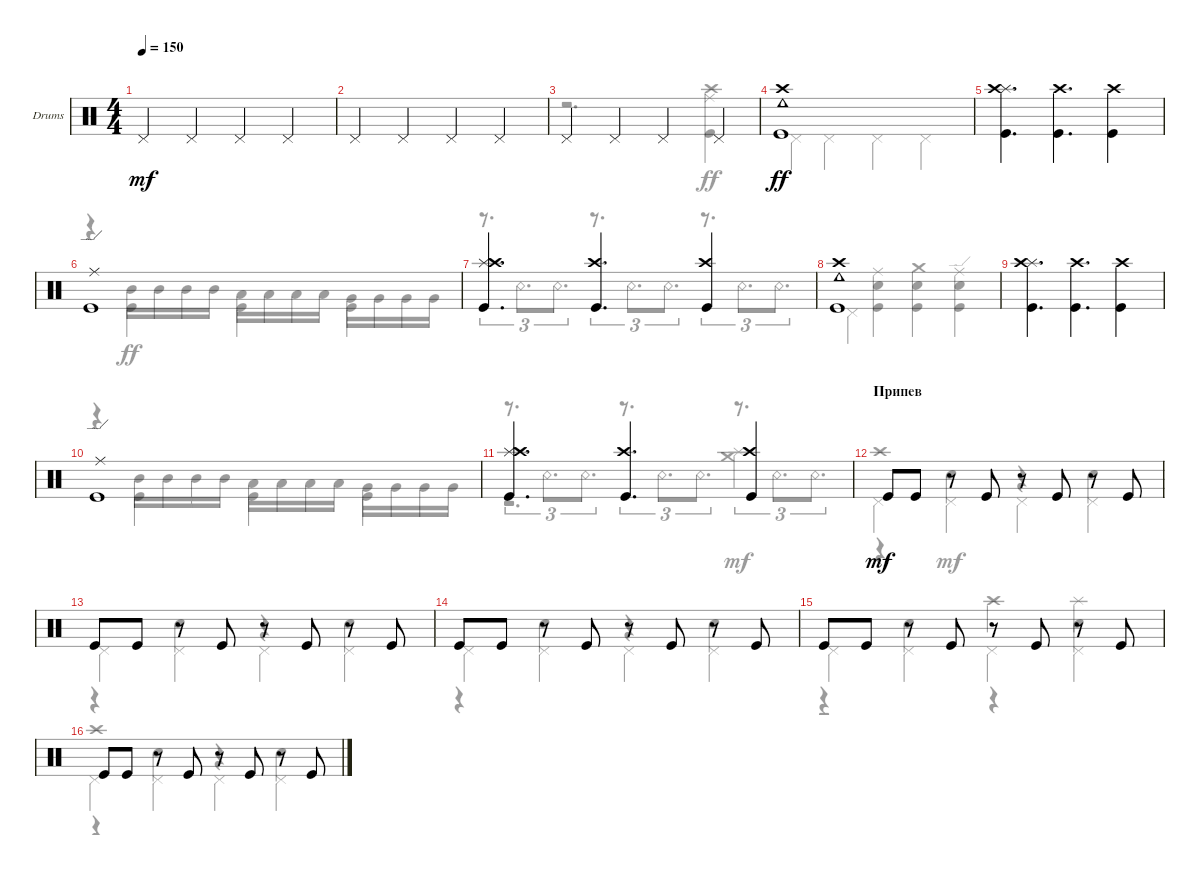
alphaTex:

\defaultSystemsLayout 4
\bracketExtendMode groupsimilarinstruments
\firstSystemTrackNameOrientation horizontal
\otherSystemsTrackNameOrientation horizontal
\track ("Drumkit" "Drums") {instrument percussion}
\staff {score}
\articulation defaults
\voice
\ts (4 4)
\tempo 150
\clef neutral
\ks c "Pedal Hi-Hat (hit)".4{dy mf} "Pedal Hi-Hat (hit)".4 "Pedal Hi-Hat (hit)".4 "Pedal Hi-Hat (hit)".4
|
"Pedal Hi-Hat (hit)".4 "Pedal Hi-Hat (hit)".4 "Pedal Hi-Hat (hit)".4 "Pedal Hi-Hat (hit)".4 |
"Pedal Hi-Hat (hit)".4 "Pedal Hi-Hat (hit)".4 "Pedal Hi-Hat (hit)".4 "Pedal Hi-Hat (hit)".4 |
("Cowbell low (hit)" "Kick (hit)" "Crash high (hit)").1{dy ff} |
("Kick (hit)" "Splash (hit)" "Crash high (hit)").4{d} ("Crash high (hit)" "Kick (hit)").4{d} ("Kick (hit)" "Crash high (hit)").4 |
("Ride (edge)" "Kick (hit)").1 |
("Kick (hit)" "Splash (hit)" "Crash high (hit)").4{d} ("Crash high (hit)" "Kick (hit)").4{d} ("Kick (hit)" "Crash high (hit)").4 |
("Cowbell low (hit)" "Kick (hit)" "Crash high (hit)").1 |
("Kick (hit)" "Splash (hit)" "Crash high (hit)").4{d} ("Crash high (hit)" "Kick (hit)").4{d} ("Kick (hit)" "Crash high (hit)").4 |
("Ride (edge)" "Kick (hit)").1 |
("Kick (hit)" "Splash (hit)" "Crash high (hit)").4{d} ("Crash high (hit)" "Kick (hit)").4{d} ("Kick (hit)" "Crash high (hit)").4 |
\section ("" "Припев")
"Kick (hit)".8{dy mf} "Kick (hit)".8 r.8 "Kick (hit)".8 r.8 "Kick (hit)".8 r.8 "Kick (hit)".8 |
"Kick (hit)".8 "Kick (hit)".8 r.8 "Kick (hit)".8 r.8 "Kick (hit)".8 r.8 "Kick (hit)".8 |
"Kick (hit)".8 "Kick (hit)".8 r.8 "Kick (hit)".8 r.8 "Kick (hit)".8 r.8 "Kick (hit)".8 |
"Kick (hit)".8 "Kick (hit)".8 r.8 "Kick (hit)".8 r.8 "Kick (hit)".8 r.8 "Kick (hit)".8 |
"Kick (hit)".8 "Kick (hit)".8 r.8 "Kick (hit)".8 r.8 "Kick (hit)".8 r.8 "Kick (hit)".8
\voice
\clef neutral
\ottava regular
\simile none
\ks c
|
|
r.2{d} ("Ride (middle)" "Crash high (hit)" "Kick (hit)").4{dy ff} |
"Pedal Hi-Hat (hit)".4 "Pedal Hi-Hat (hit)".4 "Pedal Hi-Hat (hit)".4 "Pedal Hi-Hat (hit)".4 |
|
r.4 "Mid Tom (hit)".16 "Mid Tom (hit)".16 "Mid Tom (hit)".16 "Mid Tom (hit)".16 "Low Tom (hit)".16 "Low Tom (hit)".16 "Low Tom (hit)".16 "Low Tom (hit)".16 "Very Low Tom (hit)".16 "Very Low Tom (hit)".16 "Very Low Tom (hit)".16 "Very Low Tom (hit)".16 |
r.8{d tu (3 2)} "Snare (rim shot)".8{d tu (3 2)} "Snare (rim shot)".8{d tu (3 2)} r.8{d tu (3 2)} "Snare (rim shot)".8{d tu (3 2)} "Snare (rim shot)".8{d tu (3 2)} r.8{d tu (3 2)} "Snare (rim shot)".8{d tu (3 2)} "Snare (rim shot)".8{d tu (3 2)} |
"Pedal Hi-Hat (hit)".4 ("Kick (hit)" "Ride (middle)" "Snare (hit) 2").4 ("Kick (hit)" "Snare (hit) 2" "Crash medium (hit)").4 ("Kick (hit)" "Snare (hit) 2" "Ride (edge)").4 |
|
r.4 "Mid Tom (hit)".16 "Mid Tom (hit)".16 "Mid Tom (hit)".16 "Mid Tom (hit)".16 "Low Tom (hit)".16 "Low Tom (hit)".16 "Low Tom (hit)".16 "Low Tom (hit)".16 "Very Low Tom (hit)".16 "Very Low Tom (hit)".16 "Very Low Tom (hit)".16 "Very Low Tom (hit)".16 |
r.8{d tu (3 2)} "Snare (rim shot)".8{d tu (3 2)} "Snare (rim shot)".8{d tu (3 2)} r.8{d tu (3 2)} "Snare (rim shot)".8{d tu (3 2)} "Snare (rim shot)".8{d tu (3 2)} r.8{d tu (3 2)} "Snare (rim shot)".8{d tu (3 2)} "Snare (rim shot)".8{d tu (3 2)} |
"Pedal Hi-Hat (hit)".4{dy mf} "Pedal Hi-Hat (hit)".4 "Pedal Hi-Hat (hit)".4 "Pedal Hi-Hat (hit)".4 |
"Pedal Hi-Hat (hit)".4 "Pedal Hi-Hat (hit)".4 "Pedal Hi-Hat (hit)".4 "Pedal Hi-Hat (hit)".4 |
"Pedal Hi-Hat (hit)".4 "Pedal Hi-Hat (hit)".4 "Pedal Hi-Hat (hit)".4 "Pedal Hi-Hat (hit)".4 |
"Pedal Hi-Hat (hit)".4 "Pedal Hi-Hat (hit)".4 "Pedal Hi-Hat (hit)".4 "Pedal Hi-Hat (hit)".4 |
"Pedal Hi-Hat (hit)".4 "Pedal Hi-Hat (hit)".4 "Pedal Hi-Hat (hit)".4 "Pedal Hi-Hat (hit)".4
\voice
\clef neutral
\ottava regular
\simile none
\ks c
|
|
|
|
|
r.4 "Kick (hit)".4{dy ff} "Kick (hit)".4 "Kick (hit)".4 |
|
|
|
r.4 "Kick (hit)".4 "Kick (hit)".4 "Kick (hit)".4 |
|
r.4 "Snare (hit) 2".4{dy mf} r.4 "Snare (hit) 2".4 |
r.4 "Snare (hit) 2".4 r.4 "Snare (hit) 2".4 |
r.4 "Snare (hit) 2".4 r.4 "Snare (hit) 2".4 |
r.4 "Snare (hit) 2".4 r.4 "Snare (hit) 2".4 |
r.4 "Snare (hit) 2".4 r.4 "Snare (hit) 2".4
\voice
\clef neutral
\ottava regular
\simile none
\ks c
|
|
|
|
|
|
|
|
|
|
r.2{d} ("Crash medium (hit)" "Splash (hit)").4 |
"Crash high (hit)".1 |
|
|
r.2 "Crash high (hit)".4 "Splash (hit)".4 |
"Crash high (hit)".1
